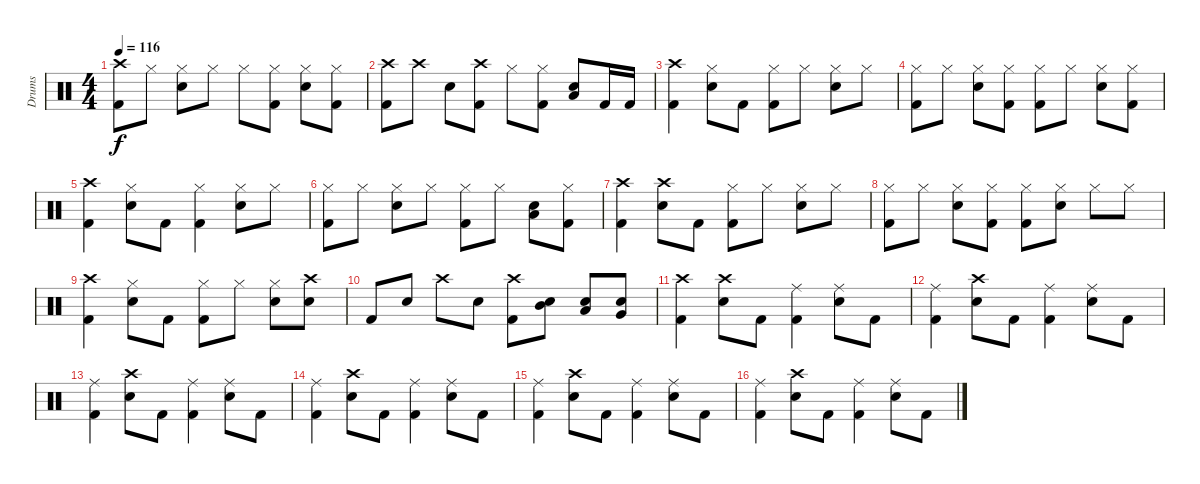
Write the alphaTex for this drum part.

\track ("Drums" "Drums") {instrument percussion}
\staff {score}
\articulation defaults
\ts (4 4)
\tempo 116
\clef neutral
\ks c
("Crash high (hit)" "Kick (hit) 2").8{dy f} "Hi-Hat (closed)".8 ("Hi-Hat (closed)" "Electric Snare (hit)").8 "Hi-Hat (closed)".8 "Hi-Hat (closed)".8 ("Hi-Hat (closed)" "Kick (hit) 2").8 ("Hi-Hat (closed)" "Electric Snare (hit)").8 ("Hi-Hat (closed)" "Kick (hit) 2").8 |
("Crash high (hit)" "Kick (hit) 2").8 "Crash high (hit)".8 "Electric Snare (hit)".8 ("Crash high (hit)" "Kick (hit) 2").8 "Hi-Hat (closed)".8 ("Hi-Hat (closed)" "Kick (hit) 2").8 ("Low Tom (hit)" "Electric Snare (hit)").8 "Kick (hit) 2".16 "Kick (hit) 2".16 |
("Crash high (hit)" "Kick (hit) 2").4 ("Hi-Hat (closed)" "Electric Snare (hit)").8 "Kick (hit) 2".8 ("Hi-Hat (closed)" "Kick (hit) 2").8 "Hi-Hat (closed)".8 ("Hi-Hat (closed)" "Electric Snare (hit)").8 "Hi-Hat (closed)".8 |
("Hi-Hat (closed)" "Kick (hit) 2").8 "Hi-Hat (closed)".8 ("Hi-Hat (closed)" "Electric Snare (hit)").8 ("Hi-Hat (closed)" "Kick (hit) 2").8 ("Hi-Hat (closed)" "Kick (hit) 2").8 "Hi-Hat (closed)".8 ("Hi-Hat (closed)" "Electric Snare (hit)").8 ("Hi-Hat (closed)" "Kick (hit) 2").8 |
("Crash high (hit)" "Kick (hit) 2").4 ("Hi-Hat (closed)" "Electric Snare (hit)").8 "Kick (hit) 2".8 ("Hi-Hat (closed)" "Kick (hit) 2").4 ("Hi-Hat (closed)" "Electric Snare (hit)").8 "Hi-Hat (closed)".8 |
("Hi-Hat (closed)" "Kick (hit) 2").8 "Hi-Hat (closed)".8 ("Hi-Hat (closed)" "Electric Snare (hit)").8 "Hi-Hat (closed)".8 ("Hi-Hat (closed)" "Kick (hit) 2").8 "Hi-Hat (closed)".8 ("Low Tom (hit)" "Electric Snare (hit)").8 ("Hi-Hat (closed)" "Kick (hit) 2").8 |
("Crash high (hit)" "Kick (hit) 2").4 ("Crash high (hit)" "Electric Snare (hit)").8 "Kick (hit) 2".8 ("Hi-Hat (closed)" "Kick (hit) 2").8 "Hi-Hat (closed)".8 ("Hi-Hat (closed)" "Electric Snare (hit)").8 "Hi-Hat (closed)".8 |
("Hi-Hat (closed)" "Kick (hit) 2").8 "Hi-Hat (closed)".8 ("Hi-Hat (closed)" "Electric Snare (hit)").8 ("Hi-Hat (closed)" "Kick (hit) 2").8 ("Hi-Hat (closed)" "Kick (hit) 2").8 ("Hi-Hat (closed)" "Electric Snare (hit)").8 "Hi-Hat (closed)".8 "Hi-Hat (closed)".8 |
("Crash high (hit)" "Kick (hit) 2").4 ("Hi-Hat (closed)" "Electric Snare (hit)").8 "Kick (hit) 2".8 ("Hi-Hat (closed)" "Kick (hit) 2").8 "Hi-Hat (closed)".8 ("Hi-Hat (closed)" "Electric Snare (hit)").8 ("Crash high (hit)" "Electric Snare (hit)").8 |
"Kick (hit) 2".8 "Electric Snare (hit)".8 "Crash high (hit)".8 "Electric Snare (hit)".8 ("Crash high (hit)" "Kick (hit) 2").8 ("Mid Tom (hit)" "Electric Snare (hit)").8 ("Low Tom (hit)" "Electric Snare (hit)").8 ("Electric Snare (hit)" "Very Low Tom (hit)").8 |
("Crash high (hit)" "Kick (hit) 2").4 ("Crash high (hit)" "Electric Snare (hit)").8 "Kick (hit) 2".8 ("Ride (middle)" "Kick (hit) 2").4 ("Ride (middle)" "Electric Snare (hit)").8 "Kick (hit) 2".8 |
("Ride (middle)" "Kick (hit) 2").4 ("Crash high (hit)" "Electric Snare (hit)").8 "Kick (hit) 2".8 ("Ride (middle)" "Kick (hit) 2").4 ("Ride (middle)" "Electric Snare (hit)").8 "Kick (hit) 2".8 |
("Ride (middle)" "Kick (hit) 2").4 ("Crash high (hit)" "Electric Snare (hit)").8 "Kick (hit) 2".8 ("Ride (middle)" "Kick (hit) 2").4 ("Ride (middle)" "Electric Snare (hit)").8 "Kick (hit) 2".8 |
("Ride (middle)" "Kick (hit) 2").4 ("Crash high (hit)" "Electric Snare (hit)").8 "Kick (hit) 2".8 ("Ride (middle)" "Kick (hit) 2").4 ("Ride (middle)" "Electric Snare (hit)").8 "Kick (hit) 2".8 |
("Ride (middle)" "Kick (hit) 2").4 ("Crash high (hit)" "Electric Snare (hit)").8 "Kick (hit) 2".8 ("Ride (middle)" "Kick (hit) 2").4 ("Ride (middle)" "Electric Snare (hit)").8 "Kick (hit) 2".8 |
("Ride (middle)" "Kick (hit) 2").4 ("Crash high (hit)" "Electric Snare (hit)").8 "Kick (hit) 2".8 ("Ride (middle)" "Kick (hit) 2").4 ("Ride (middle)" "Electric Snare (hit)").8 "Kick (hit) 2".8
